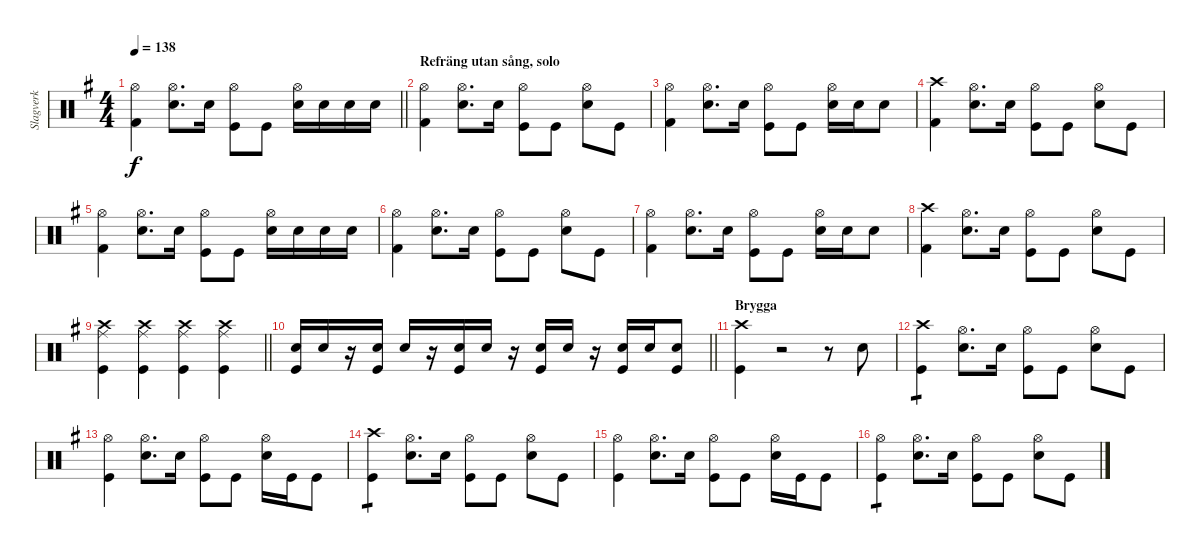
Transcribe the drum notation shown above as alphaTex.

\track ("Slagverk" "Slagverk") {instrument percussion}
\staff {score}
\articulation defaults
\ts (4 4)
\tempo 138
\clef neutral
\barLineRight lightlight
\ks g
("Hi-Hat (open)" "Kick (hit) 2").4{dy f} ("Hi-Hat (open)" "Snare (hit) 2").8{d} "Snare (hit) 2".16 ("Hi-Hat (open)" "Kick (hit)").8 "Kick (hit)".8 ("Hi-Hat (open)" "Snare (hit) 2").16 "Snare (hit) 2".16 "Snare (hit) 2".16 "Snare (hit) 2".16 |
\section ("" "Refräng utan sång, solo")
("Hi-Hat (open)" "Kick (hit) 2").4 ("Hi-Hat (open)" "Snare (hit) 2").8{d} "Snare (hit) 2".16 ("Hi-Hat (open)" "Kick (hit)").8 "Kick (hit)".8 ("Hi-Hat (open)" "Snare (hit) 2").8 "Kick (hit)".8 |
("Hi-Hat (open)" "Kick (hit) 2").4 ("Hi-Hat (open)" "Snare (hit) 2").8{d} "Snare (hit) 2".16 ("Hi-Hat (open)" "Kick (hit)").8 "Kick (hit)".8 ("Hi-Hat (open)" "Snare (hit) 2").16 "Snare (hit) 2".16 "Snare (hit) 2".8 |
("Crash high (hit)" "Kick (hit) 2").4 ("Hi-Hat (open)" "Snare (hit) 2").8{d} "Snare (hit) 2".16 ("Hi-Hat (open)" "Kick (hit)").8 "Kick (hit)".8 ("Hi-Hat (open)" "Snare (hit) 2").8 "Kick (hit)".8 |
("Hi-Hat (open)" "Kick (hit) 2").4 ("Hi-Hat (open)" "Snare (hit) 2").8{d} "Snare (hit) 2".16 ("Hi-Hat (open)" "Kick (hit)").8 "Kick (hit)".8 ("Hi-Hat (open)" "Snare (hit) 2").16 "Snare (hit) 2".16 "Snare (hit) 2".16 "Snare (hit) 2".16 |
("Hi-Hat (open)" "Kick (hit) 2").4 ("Hi-Hat (open)" "Snare (hit) 2").8{d} "Snare (hit) 2".16 ("Hi-Hat (open)" "Kick (hit)").8 "Kick (hit)".8 ("Hi-Hat (open)" "Snare (hit) 2").8 "Kick (hit)".8 |
("Hi-Hat (open)" "Kick (hit) 2").4 ("Hi-Hat (open)" "Snare (hit) 2").8{d} "Snare (hit) 2".16 ("Hi-Hat (open)" "Kick (hit)").8 "Kick (hit)".8 ("Hi-Hat (open)" "Snare (hit) 2").16 "Snare (hit) 2".16 "Snare (hit) 2".8 |
("Crash high (hit)" "Kick (hit) 2").4 ("Hi-Hat (open)" "Snare (hit) 2").8{d} "Snare (hit) 2".16 ("Hi-Hat (open)" "Kick (hit)").8 "Kick (hit)".8 ("Hi-Hat (open)" "Snare (hit) 2").8 "Kick (hit)".8 |
\barLineRight lightlight
("Crash high (hit)" "Ride (middle)" "Kick (hit)").4 ("Crash high (hit)" "Ride (middle)" "Kick (hit)").4 ("Crash high (hit)" "Ride (middle)" "Kick (hit)").4 ("Crash high (hit)" "Ride (middle)" "Kick (hit)").4 |
\barLineRight lightlight
("Snare (hit) 2" "Kick (hit)").16 "Snare (hit) 2".16 r.16 ("Snare (hit) 2" "Kick (hit)").16 "Snare (hit) 2".16 r.16 ("Snare (hit) 2" "Kick (hit)").16 "Snare (hit) 2".16 r.16 ("Snare (hit) 2" "Kick (hit)").16 "Snare (hit) 2".16 r.16 ("Snare (hit) 2" "Kick (hit)").16 "Snare (hit) 2".16 ("Snare (hit) 2" "Kick (hit)").8 |
\section ("" "Brygga")
("Crash high (hit)" "Kick (hit)").4 r.2 r.8 "Snare (hit) 2".8 |
("Crash high (hit)" "Kick (hit)").4{tp 1} ("Hi-Hat (open)" "Snare (hit) 2").8{d} "Snare (hit) 2".16 ("Hi-Hat (open)" "Kick (hit)").8 "Kick (hit)".8 ("Hi-Hat (open)" "Snare (hit) 2").8 "Kick (hit)".8 |
("Hi-Hat (open)" "Kick (hit)").4 ("Hi-Hat (open)" "Snare (hit) 2").8{d} "Snare (hit) 2".16 ("Hi-Hat (open)" "Kick (hit)").8 "Kick (hit)".8 ("Hi-Hat (open)" "Snare (hit) 2").16 "Kick (hit)".16 "Kick (hit)".8 |
("Crash high (hit)" "Kick (hit)").4{tp 1} ("Hi-Hat (open)" "Snare (hit) 2").8{d} "Snare (hit) 2".16 ("Hi-Hat (open)" "Kick (hit)").8 "Kick (hit)".8 ("Hi-Hat (open)" "Snare (hit) 2").8 "Kick (hit)".8 |
("Hi-Hat (open)" "Kick (hit)").4 ("Hi-Hat (open)" "Snare (hit) 2").8{d} "Snare (hit) 2".16 ("Hi-Hat (open)" "Kick (hit)").8 "Kick (hit)".8 ("Hi-Hat (open)" "Snare (hit) 2").16 "Kick (hit)".16 "Kick (hit)".8 |
("Hi-Hat (open)" "Kick (hit)").4{tp 1} ("Hi-Hat (open)" "Snare (hit) 2").8{d} "Snare (hit) 2".16 ("Hi-Hat (open)" "Kick (hit)").8 "Kick (hit)".8 ("Hi-Hat (open)" "Snare (hit) 2").8 "Kick (hit)".8
